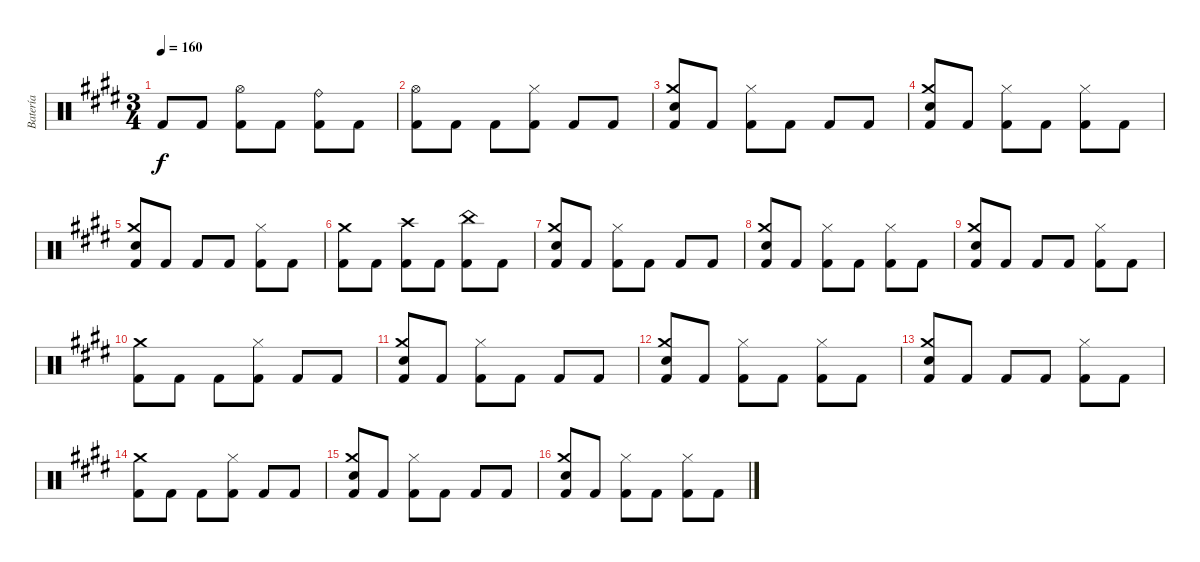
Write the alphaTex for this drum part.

\track ("Batería" "Batería") {instrument percussion}
\staff {score}
\articulation defaults
\ts (3 4)
\tempo 160
\clef neutral
\ks c#minor "Kick (hit) 2".8{dy f} "Kick (hit) 2".8
("Hi-Hat (open)" "Kick (hit) 2").8 "Kick (hit) 2".8 ("Ride (bell)" "Kick (hit) 2").8 "Kick (hit) 2".8 |
("Hi-Hat (open)" "Kick (hit) 2").8 "Kick (hit) 2".8 "Kick (hit) 2".8 ("Hi-Hat (closed)" "Kick (hit) 2").8 "Kick (hit) 2".8 "Kick (hit) 2".8 |
("Crash medium (hit)" "Snare (hit) 2" "Kick (hit) 2").8 "Kick (hit) 2".8 ("Hi-Hat (closed)" "Kick (hit) 2").8 "Kick (hit) 2".8 "Kick (hit) 2".8 "Kick (hit) 2".8 |
("Crash medium (hit)" "Snare (hit) 2" "Kick (hit) 2").8 "Kick (hit) 2".8 ("Hi-Hat (closed)" "Kick (hit) 2").8 "Kick (hit) 2".8 ("Hi-Hat (closed)" "Kick (hit) 2").8 "Kick (hit) 2".8 |
("Crash medium (hit)" "Snare (hit) 2" "Kick (hit) 2").8 "Kick (hit) 2".8 "Kick (hit) 2".8 "Kick (hit) 2".8 ("Hi-Hat (closed)" "Kick (hit) 2").8 "Kick (hit) 2".8 |
("Crash medium (hit)" "Kick (hit) 2").8 "Kick (hit) 2".8 ("Crash high (hit)" "Kick (hit) 2").8 "Kick (hit) 2".8 ("China (hit)" "Kick (hit) 2").8 "Kick (hit) 2".8 |
("Crash medium (hit)" "Snare (hit) 2" "Kick (hit) 2").8 "Kick (hit) 2".8 ("Hi-Hat (closed)" "Kick (hit) 2").8 "Kick (hit) 2".8 "Kick (hit) 2".8 "Kick (hit) 2".8 |
("Crash medium (hit)" "Snare (hit) 2" "Kick (hit) 2").8 "Kick (hit) 2".8 ("Hi-Hat (closed)" "Kick (hit) 2").8 "Kick (hit) 2".8 ("Hi-Hat (closed)" "Kick (hit) 2").8 "Kick (hit) 2".8 |
("Crash medium (hit)" "Snare (hit) 2" "Kick (hit) 2").8 "Kick (hit) 2".8 "Kick (hit) 2".8 "Kick (hit) 2".8 ("Hi-Hat (closed)" "Kick (hit) 2").8 "Kick (hit) 2".8 |
("Crash medium (hit)" "Kick (hit) 2").8 "Kick (hit) 2".8 "Kick (hit) 2".8 ("Hi-Hat (closed)" "Kick (hit) 2").8 "Kick (hit) 2".8 "Kick (hit) 2".8 |
("Crash medium (hit)" "Snare (hit) 2" "Kick (hit) 2").8 "Kick (hit) 2".8 ("Hi-Hat (closed)" "Kick (hit) 2").8 "Kick (hit) 2".8 "Kick (hit) 2".8 "Kick (hit) 2".8 |
("Crash medium (hit)" "Snare (hit) 2" "Kick (hit) 2").8 "Kick (hit) 2".8 ("Hi-Hat (closed)" "Kick (hit) 2").8 "Kick (hit) 2".8 ("Hi-Hat (closed)" "Kick (hit) 2").8 "Kick (hit) 2".8 |
("Crash medium (hit)" "Snare (hit) 2" "Kick (hit) 2").8 "Kick (hit) 2".8 "Kick (hit) 2".8 "Kick (hit) 2".8 ("Hi-Hat (closed)" "Kick (hit) 2").8 "Kick (hit) 2".8 |
("Crash medium (hit)" "Kick (hit) 2").8 "Kick (hit) 2".8 "Kick (hit) 2".8 ("Hi-Hat (closed)" "Kick (hit) 2").8 "Kick (hit) 2".8 "Kick (hit) 2".8 |
("Crash medium (hit)" "Snare (hit) 2" "Kick (hit) 2").8 "Kick (hit) 2".8 ("Hi-Hat (closed)" "Kick (hit) 2").8 "Kick (hit) 2".8 "Kick (hit) 2".8 "Kick (hit) 2".8 |
("Crash medium (hit)" "Snare (hit) 2" "Kick (hit) 2").8 "Kick (hit) 2".8 ("Hi-Hat (closed)" "Kick (hit) 2").8 "Kick (hit) 2".8 ("Hi-Hat (closed)" "Kick (hit) 2").8 "Kick (hit) 2".8
